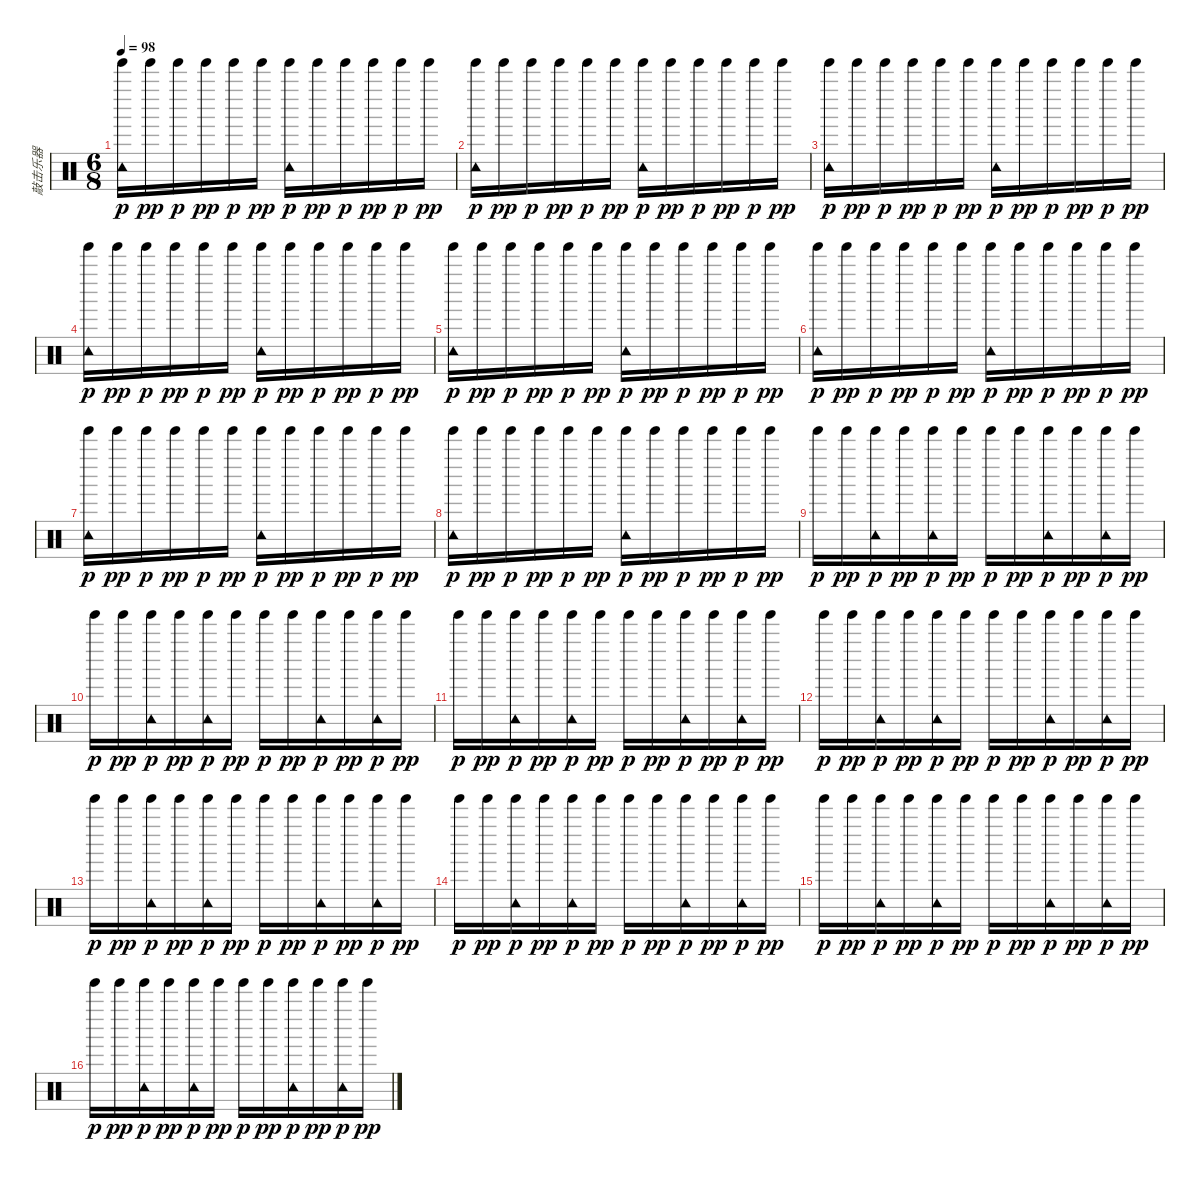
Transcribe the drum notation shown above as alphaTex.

\track ("敲击乐器" "敲击乐器") {instrument percussion}
\staff {score}
\articulation defaults
\ts (6 8)
\tempo 98
\clef neutral
\ks c
("Tinkle Bell (hit)" "Tambourine (hit)").16{dy p} "Tinkle Bell (hit)".16{dy pp} "Tinkle Bell (hit)".16{dy p} "Tinkle Bell (hit)".16{dy pp} "Tinkle Bell (hit)".16{dy p} "Tinkle Bell (hit)".16{dy pp} ("Tinkle Bell (hit)" "Tambourine (hit)").16{dy p} "Tinkle Bell (hit)".16{dy pp} "Tinkle Bell (hit)".16{dy p} "Tinkle Bell (hit)".16{dy pp} "Tinkle Bell (hit)".16{dy p} "Tinkle Bell (hit)".16{dy pp} |
("Tinkle Bell (hit)" "Tambourine (hit)").16{dy p} "Tinkle Bell (hit)".16{dy pp} "Tinkle Bell (hit)".16{dy p} "Tinkle Bell (hit)".16{dy pp} "Tinkle Bell (hit)".16{dy p} "Tinkle Bell (hit)".16{dy pp} ("Tinkle Bell (hit)" "Tambourine (hit)").16{dy p} "Tinkle Bell (hit)".16{dy pp} "Tinkle Bell (hit)".16{dy p} "Tinkle Bell (hit)".16{dy pp} "Tinkle Bell (hit)".16{dy p} "Tinkle Bell (hit)".16{dy pp} |
("Tinkle Bell (hit)" "Tambourine (hit)").16{dy p} "Tinkle Bell (hit)".16{dy pp} "Tinkle Bell (hit)".16{dy p} "Tinkle Bell (hit)".16{dy pp} "Tinkle Bell (hit)".16{dy p} "Tinkle Bell (hit)".16{dy pp} ("Tinkle Bell (hit)" "Tambourine (hit)").16{dy p} "Tinkle Bell (hit)".16{dy pp} "Tinkle Bell (hit)".16{dy p} "Tinkle Bell (hit)".16{dy pp} "Tinkle Bell (hit)".16{dy p} "Tinkle Bell (hit)".16{dy pp} |
("Tinkle Bell (hit)" "Tambourine (hit)").16{dy p} "Tinkle Bell (hit)".16{dy pp} "Tinkle Bell (hit)".16{dy p} "Tinkle Bell (hit)".16{dy pp} "Tinkle Bell (hit)".16{dy p} "Tinkle Bell (hit)".16{dy pp} ("Tinkle Bell (hit)" "Tambourine (hit)").16{dy p} "Tinkle Bell (hit)".16{dy pp} "Tinkle Bell (hit)".16{dy p} "Tinkle Bell (hit)".16{dy pp} "Tinkle Bell (hit)".16{dy p} "Tinkle Bell (hit)".16{dy pp} |
("Tinkle Bell (hit)" "Tambourine (hit)").16{dy p} "Tinkle Bell (hit)".16{dy pp} "Tinkle Bell (hit)".16{dy p} "Tinkle Bell (hit)".16{dy pp} "Tinkle Bell (hit)".16{dy p} "Tinkle Bell (hit)".16{dy pp} ("Tinkle Bell (hit)" "Tambourine (hit)").16{dy p} "Tinkle Bell (hit)".16{dy pp} "Tinkle Bell (hit)".16{dy p} "Tinkle Bell (hit)".16{dy pp} "Tinkle Bell (hit)".16{dy p} "Tinkle Bell (hit)".16{dy pp} |
("Tinkle Bell (hit)" "Tambourine (hit)").16{dy p} "Tinkle Bell (hit)".16{dy pp} "Tinkle Bell (hit)".16{dy p} "Tinkle Bell (hit)".16{dy pp} "Tinkle Bell (hit)".16{dy p} "Tinkle Bell (hit)".16{dy pp} ("Tinkle Bell (hit)" "Tambourine (hit)").16{dy p} "Tinkle Bell (hit)".16{dy pp} "Tinkle Bell (hit)".16{dy p} "Tinkle Bell (hit)".16{dy pp} "Tinkle Bell (hit)".16{dy p} "Tinkle Bell (hit)".16{dy pp} |
("Tinkle Bell (hit)" "Tambourine (hit)").16{dy p} "Tinkle Bell (hit)".16{dy pp} "Tinkle Bell (hit)".16{dy p} "Tinkle Bell (hit)".16{dy pp} "Tinkle Bell (hit)".16{dy p} "Tinkle Bell (hit)".16{dy pp} ("Tinkle Bell (hit)" "Tambourine (hit)").16{dy p} "Tinkle Bell (hit)".16{dy pp} "Tinkle Bell (hit)".16{dy p} "Tinkle Bell (hit)".16{dy pp} "Tinkle Bell (hit)".16{dy p} "Tinkle Bell (hit)".16{dy pp} |
("Tinkle Bell (hit)" "Tambourine (hit)").16{dy p} "Tinkle Bell (hit)".16{dy pp} "Tinkle Bell (hit)".16{dy p} "Tinkle Bell (hit)".16{dy pp} "Tinkle Bell (hit)".16{dy p} "Tinkle Bell (hit)".16{dy pp} ("Tinkle Bell (hit)" "Tambourine (hit)").16{dy p} "Tinkle Bell (hit)".16{dy pp} "Tinkle Bell (hit)".16{dy p} "Tinkle Bell (hit)".16{dy pp} "Tinkle Bell (hit)".16{dy p} "Tinkle Bell (hit)".16{dy pp} |
"Tinkle Bell (hit)".16{dy p} "Tinkle Bell (hit)".16{dy pp} ("Tinkle Bell (hit)" "Tambourine (hit)").16{dy p} "Tinkle Bell (hit)".16{dy pp} ("Tinkle Bell (hit)" "Tambourine (hit)").16{dy p} "Tinkle Bell (hit)".16{dy pp} "Tinkle Bell (hit)".16{dy p} "Tinkle Bell (hit)".16{dy pp} ("Tinkle Bell (hit)" "Tambourine (hit)").16{dy p} "Tinkle Bell (hit)".16{dy pp} ("Tinkle Bell (hit)" "Tambourine (hit)").16{dy p} "Tinkle Bell (hit)".16{dy pp} |
"Tinkle Bell (hit)".16{dy p} "Tinkle Bell (hit)".16{dy pp} ("Tinkle Bell (hit)" "Tambourine (hit)").16{dy p} "Tinkle Bell (hit)".16{dy pp} ("Tinkle Bell (hit)" "Tambourine (hit)").16{dy p} "Tinkle Bell (hit)".16{dy pp} "Tinkle Bell (hit)".16{dy p} "Tinkle Bell (hit)".16{dy pp} ("Tinkle Bell (hit)" "Tambourine (hit)").16{dy p} "Tinkle Bell (hit)".16{dy pp} ("Tinkle Bell (hit)" "Tambourine (hit)").16{dy p} "Tinkle Bell (hit)".16{dy pp} |
"Tinkle Bell (hit)".16{dy p} "Tinkle Bell (hit)".16{dy pp} ("Tinkle Bell (hit)" "Tambourine (hit)").16{dy p} "Tinkle Bell (hit)".16{dy pp} ("Tinkle Bell (hit)" "Tambourine (hit)").16{dy p} "Tinkle Bell (hit)".16{dy pp} "Tinkle Bell (hit)".16{dy p} "Tinkle Bell (hit)".16{dy pp} ("Tinkle Bell (hit)" "Tambourine (hit)").16{dy p} "Tinkle Bell (hit)".16{dy pp} ("Tinkle Bell (hit)" "Tambourine (hit)").16{dy p} "Tinkle Bell (hit)".16{dy pp} |
"Tinkle Bell (hit)".16{dy p} "Tinkle Bell (hit)".16{dy pp} ("Tinkle Bell (hit)" "Tambourine (hit)").16{dy p} "Tinkle Bell (hit)".16{dy pp} ("Tinkle Bell (hit)" "Tambourine (hit)").16{dy p} "Tinkle Bell (hit)".16{dy pp} "Tinkle Bell (hit)".16{dy p} "Tinkle Bell (hit)".16{dy pp} ("Tinkle Bell (hit)" "Tambourine (hit)").16{dy p} "Tinkle Bell (hit)".16{dy pp} ("Tinkle Bell (hit)" "Tambourine (hit)").16{dy p} "Tinkle Bell (hit)".16{dy pp} |
"Tinkle Bell (hit)".16{dy p} "Tinkle Bell (hit)".16{dy pp} ("Tinkle Bell (hit)" "Tambourine (hit)").16{dy p} "Tinkle Bell (hit)".16{dy pp} ("Tinkle Bell (hit)" "Tambourine (hit)").16{dy p} "Tinkle Bell (hit)".16{dy pp} "Tinkle Bell (hit)".16{dy p} "Tinkle Bell (hit)".16{dy pp} ("Tinkle Bell (hit)" "Tambourine (hit)").16{dy p} "Tinkle Bell (hit)".16{dy pp} ("Tinkle Bell (hit)" "Tambourine (hit)").16{dy p} "Tinkle Bell (hit)".16{dy pp} |
"Tinkle Bell (hit)".16{dy p} "Tinkle Bell (hit)".16{dy pp} ("Tinkle Bell (hit)" "Tambourine (hit)").16{dy p} "Tinkle Bell (hit)".16{dy pp} ("Tinkle Bell (hit)" "Tambourine (hit)").16{dy p} "Tinkle Bell (hit)".16{dy pp} "Tinkle Bell (hit)".16{dy p} "Tinkle Bell (hit)".16{dy pp} ("Tinkle Bell (hit)" "Tambourine (hit)").16{dy p} "Tinkle Bell (hit)".16{dy pp} ("Tinkle Bell (hit)" "Tambourine (hit)").16{dy p} "Tinkle Bell (hit)".16{dy pp} |
"Tinkle Bell (hit)".16{dy p} "Tinkle Bell (hit)".16{dy pp} ("Tinkle Bell (hit)" "Tambourine (hit)").16{dy p} "Tinkle Bell (hit)".16{dy pp} ("Tinkle Bell (hit)" "Tambourine (hit)").16{dy p} "Tinkle Bell (hit)".16{dy pp} "Tinkle Bell (hit)".16{dy p} "Tinkle Bell (hit)".16{dy pp} ("Tinkle Bell (hit)" "Tambourine (hit)").16{dy p} "Tinkle Bell (hit)".16{dy pp} ("Tinkle Bell (hit)" "Tambourine (hit)").16{dy p} "Tinkle Bell (hit)".16{dy pp} |
"Tinkle Bell (hit)".16{dy p} "Tinkle Bell (hit)".16{dy pp} ("Tinkle Bell (hit)" "Tambourine (hit)").16{dy p} "Tinkle Bell (hit)".16{dy pp} ("Tinkle Bell (hit)" "Tambourine (hit)").16{dy p} "Tinkle Bell (hit)".16{dy pp} "Tinkle Bell (hit)".16{dy p} "Tinkle Bell (hit)".16{dy pp} ("Tinkle Bell (hit)" "Tambourine (hit)").16{dy p} "Tinkle Bell (hit)".16{dy pp} ("Tinkle Bell (hit)" "Tambourine (hit)").16{dy p} "Tinkle Bell (hit)".16{dy pp}
